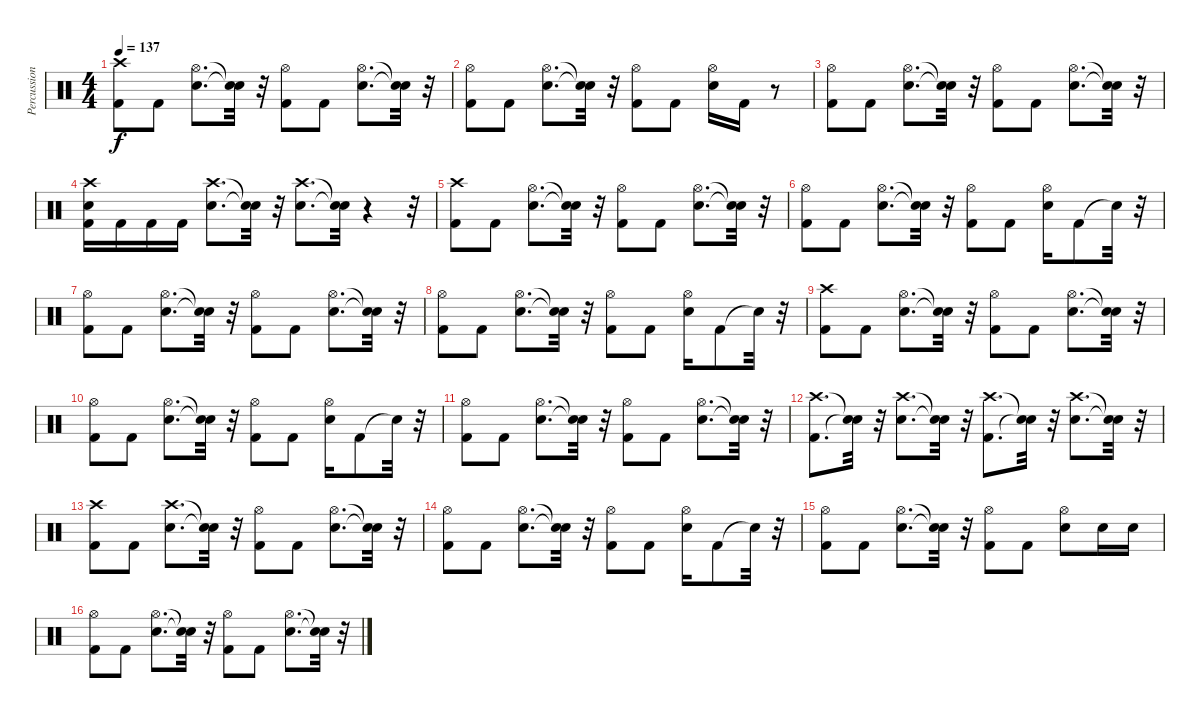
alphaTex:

\track ("Percussion" "Percussion") {instrument percussion}
\staff {score}
\articulation defaults
\ts (4 4)
\tempo 137
\clef neutral
\ks c
("Crash high (hit)" "Kick (hit) 2").8{dy f} "Kick (hit) 2".8 ("Hi-Hat (open)" "Snare (hit) 2").8{d} ("Snare (hit)"{t} "Snare (hit)"{t}).32 r.32 ("Hi-Hat (open)" "Kick (hit) 2").8 "Kick (hit) 2".8 ("Hi-Hat (open)" "Snare (hit) 2").8{d} ("Snare (hit)"{t} "Snare (hit)"{t}).32 r.32 |
("Hi-Hat (open)" "Kick (hit) 2").8 "Kick (hit) 2".8 ("Hi-Hat (open)" "Snare (hit) 2").8{d} ("Snare (hit)"{t} "Snare (hit)"{t}).32 r.32 ("Hi-Hat (open)" "Kick (hit) 2").8 "Kick (hit) 2".8 ("Hi-Hat (open)" "Snare (hit) 2").16 "Kick (hit) 2".16 r.8 |
("Hi-Hat (open)" "Kick (hit) 2").8 "Kick (hit) 2".8 ("Hi-Hat (open)" "Snare (hit) 2").8{d} ("Snare (hit)"{t} "Snare (hit)"{t}).32 r.32 ("Hi-Hat (open)" "Kick (hit) 2").8 "Kick (hit) 2".8 ("Hi-Hat (open)" "Snare (hit) 2").8{d} ("Snare (hit)"{t} "Snare (hit)"{t}).32 r.32 |
("Kick (hit) 2" "Snare (hit) 2" "Crash high (hit)").16 "Kick (hit) 2".16 "Kick (hit) 2".16 "Kick (hit) 2".16 ("Snare (hit) 2" "Crash high (hit)").8{d} ("Snare (hit)"{t} "Snare (hit)"{t}).32 r.32 ("Snare (hit) 2" "Crash high (hit)").8{d} ("Snare (hit)"{t} "Snare (hit)"{t}).32 r.4 r.32 |
("Kick (hit) 2" "Crash high (hit)").8 "Kick (hit) 2".8 ("Snare (hit) 2" "Hi-Hat (open)").8{d} ("Snare (hit)"{t} "Snare (hit)"{t}).32 r.32 ("Kick (hit) 2" "Hi-Hat (open)").8 "Kick (hit) 2".8 ("Hi-Hat (open)" "Snare (hit) 2").8{d} ("Snare (hit)"{t} "Snare (hit)"{t}).32 r.32 |
("Kick (hit) 2" "Hi-Hat (open)").8 "Kick (hit) 2".8 ("Snare (hit) 2" "Hi-Hat (open)").8{d} ("Snare (hit)"{t} "Snare (hit)"{t}).32 r.32 ("Kick (hit) 2" "Hi-Hat (open)").8 "Kick (hit) 2".8 ("Hi-Hat (open)" "Snare (hit) 2").16 "Kick (hit) 2".8 "Snare (hit)"{t}.32 r.32 |
("Kick (hit) 2" "Hi-Hat (open)").8 "Kick (hit) 2".8 ("Snare (hit) 2" "Hi-Hat (open)").8{d} ("Snare (hit)"{t} "Snare (hit)"{t}).32 r.32 ("Kick (hit) 2" "Hi-Hat (open)").8 "Kick (hit) 2".8 ("Hi-Hat (open)" "Snare (hit) 2").8{d} ("Snare (hit)"{t} "Snare (hit)"{t}).32 r.32 |
("Kick (hit) 2" "Hi-Hat (open)").8 "Kick (hit) 2".8 ("Snare (hit) 2" "Hi-Hat (open)").8{d} ("Snare (hit)"{t} "Snare (hit)"{t}).32 r.32 ("Kick (hit) 2" "Hi-Hat (open)").8 "Kick (hit) 2".8 ("Hi-Hat (open)" "Snare (hit) 2").16 "Kick (hit) 2".8 "Snare (hit)"{t}.32 r.32 |
("Kick (hit) 2" "Crash high (hit)").8 "Kick (hit) 2".8 ("Snare (hit) 2" "Hi-Hat (open)").8{d} ("Snare (hit)"{t} "Snare (hit)"{t}).32 r.32 ("Kick (hit) 2" "Hi-Hat (open)").8 "Kick (hit) 2".8 ("Hi-Hat (open)" "Snare (hit) 2").8{d} ("Snare (hit)"{t} "Snare (hit)"{t}).32 r.32 |
("Kick (hit) 2" "Hi-Hat (open)").8 "Kick (hit) 2".8 ("Snare (hit) 2" "Hi-Hat (open)").8{d} ("Snare (hit)"{t} "Snare (hit)"{t}).32 r.32 ("Kick (hit) 2" "Hi-Hat (open)").8 "Kick (hit) 2".8 ("Hi-Hat (open)" "Snare (hit) 2").16 "Kick (hit) 2".8 "Snare (hit)"{t}.32 r.32 |
("Kick (hit) 2" "Hi-Hat (open)").8 "Kick (hit) 2".8 ("Snare (hit) 2" "Hi-Hat (open)").8{d} ("Snare (hit)"{t} "Snare (hit)"{t}).32 r.32 ("Kick (hit) 2" "Hi-Hat (open)").8 "Kick (hit) 2".8 ("Hi-Hat (open)" "Snare (hit) 2").8{d} ("Snare (hit)"{t} "Snare (hit)"{t}).32 r.32 |
("Crash high (hit)" "Kick (hit) 2").8{d} ("Snare (hit)"{t} "Snare (hit)"{t}).32 r.32 ("Snare (hit) 2" "Crash high (hit)").8{d} ("Snare (hit)"{t} "Snare (hit)"{t}).32 r.32 ("Crash high (hit)" "Kick (hit) 2").8{d} ("Snare (hit)"{t} "Snare (hit)"{t}).32 r.32 ("Crash high (hit)" "Snare (hit) 2").8{d} ("Snare (hit)"{t} "Snare (hit)"{t}).32 r.32 |
("Kick (hit) 2" "Crash high (hit)").8 "Kick (hit) 2".8 ("Snare (hit) 2" "Crash high (hit)").8{d} ("Snare (hit)"{t} "Snare (hit)"{t}).32 r.32 ("Kick (hit) 2" "Hi-Hat (open)").8 "Kick (hit) 2".8 ("Hi-Hat (open)" "Snare (hit) 2").8{d} ("Snare (hit)"{t} "Snare (hit)"{t}).32 r.32 |
("Kick (hit) 2" "Hi-Hat (open)").8 "Kick (hit) 2".8 ("Snare (hit) 2" "Hi-Hat (open)").8{d} ("Snare (hit)"{t} "Snare (hit)"{t}).32 r.32 ("Kick (hit) 2" "Hi-Hat (open)").8 "Kick (hit) 2".8 ("Hi-Hat (open)" "Snare (hit) 2").16 "Kick (hit) 2".8 "Snare (hit)"{t}.32 r.32 |
("Kick (hit) 2" "Hi-Hat (open)").8 "Kick (hit) 2".8 ("Snare (hit) 2" "Hi-Hat (open)").8{d} ("Snare (hit)"{t} "Snare (hit)"{t}).32 r.32 ("Kick (hit) 2" "Hi-Hat (open)").8 "Kick (hit) 2".8 ("Hi-Hat (open)" "Snare (hit) 2").8 "Snare (hit) 2".16 "Snare (hit) 2".16 |
("Kick (hit) 2" "Hi-Hat (open)").8 "Kick (hit) 2".8 ("Snare (hit) 2" "Hi-Hat (open)").8{d} ("Snare (hit)"{t} "Snare (hit)"{t}).32 r.32 ("Kick (hit) 2" "Hi-Hat (open)").8 "Kick (hit) 2".8 ("Hi-Hat (open)" "Snare (hit) 2").8{d} ("Snare (hit)"{t} "Snare (hit)"{t}).32 r.32
